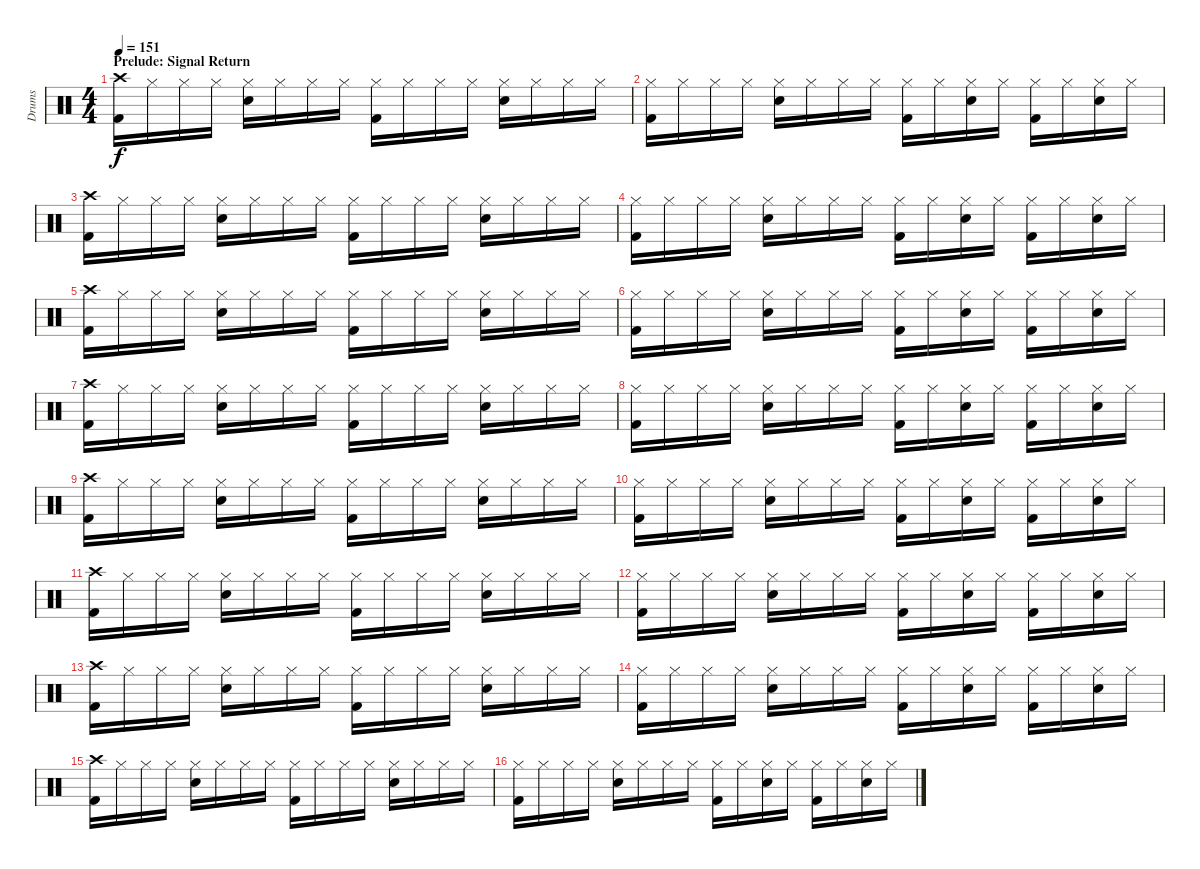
\track ("Drums" "Drums") {instrument percussion}
\staff {score}
\articulation defaults
\ts (4 4)
\section ("" "Prelude: Signal Return")
\tempo 151
\clef neutral
\ks c
("Crash high (hit)" "Kick (hit) 2").16{dy f} "Hi-Hat (closed)".16 "Hi-Hat (closed)".16 "Hi-Hat (closed)".16 ("Hi-Hat (closed)" "Snare (hit) 2").16 "Hi-Hat (closed)".16 "Hi-Hat (closed)".16 "Hi-Hat (closed)".16 ("Hi-Hat (closed)" "Kick (hit) 2").16 "Hi-Hat (closed)".16 "Hi-Hat (closed)".16 "Hi-Hat (closed)".16 ("Hi-Hat (closed)" "Snare (hit) 2").16 "Hi-Hat (closed)".16 "Hi-Hat (closed)".16 "Hi-Hat (closed)".16 |
("Hi-Hat (closed)" "Kick (hit) 2").16 "Hi-Hat (closed)".16 "Hi-Hat (closed)".16 "Hi-Hat (closed)".16 ("Hi-Hat (closed)" "Snare (hit) 2").16 "Hi-Hat (closed)".16 "Hi-Hat (closed)".16 "Hi-Hat (closed)".16 ("Hi-Hat (closed)" "Kick (hit) 2").16 "Hi-Hat (closed)".16 ("Hi-Hat (closed)" "Snare (hit) 2").16 "Hi-Hat (closed)".16 ("Hi-Hat (closed)" "Kick (hit) 2").16 "Hi-Hat (closed)".16 ("Hi-Hat (closed)" "Snare (hit) 2").16 "Hi-Hat (closed)".16 |
("Crash high (hit)" "Kick (hit) 2").16 "Hi-Hat (closed)".16 "Hi-Hat (closed)".16 "Hi-Hat (closed)".16 ("Hi-Hat (closed)" "Snare (hit) 2").16 "Hi-Hat (closed)".16 "Hi-Hat (closed)".16 "Hi-Hat (closed)".16 ("Hi-Hat (closed)" "Kick (hit) 2").16 "Hi-Hat (closed)".16 "Hi-Hat (closed)".16 "Hi-Hat (closed)".16 ("Hi-Hat (closed)" "Snare (hit) 2").16 "Hi-Hat (closed)".16 "Hi-Hat (closed)".16 "Hi-Hat (closed)".16 |
("Hi-Hat (closed)" "Kick (hit) 2").16 "Hi-Hat (closed)".16 "Hi-Hat (closed)".16 "Hi-Hat (closed)".16 ("Hi-Hat (closed)" "Snare (hit) 2").16 "Hi-Hat (closed)".16 "Hi-Hat (closed)".16 "Hi-Hat (closed)".16 ("Hi-Hat (closed)" "Kick (hit) 2").16 "Hi-Hat (closed)".16 ("Hi-Hat (closed)" "Snare (hit) 2").16 "Hi-Hat (closed)".16 ("Hi-Hat (closed)" "Kick (hit) 2").16 "Hi-Hat (closed)".16 ("Hi-Hat (closed)" "Snare (hit) 2").16 "Hi-Hat (closed)".16 |
("Crash high (hit)" "Kick (hit) 2").16 "Hi-Hat (closed)".16 "Hi-Hat (closed)".16 "Hi-Hat (closed)".16 ("Hi-Hat (closed)" "Snare (hit) 2").16 "Hi-Hat (closed)".16 "Hi-Hat (closed)".16 "Hi-Hat (closed)".16 ("Hi-Hat (closed)" "Kick (hit) 2").16 "Hi-Hat (closed)".16 "Hi-Hat (closed)".16 "Hi-Hat (closed)".16 ("Hi-Hat (closed)" "Snare (hit) 2").16 "Hi-Hat (closed)".16 "Hi-Hat (closed)".16 "Hi-Hat (closed)".16 |
("Hi-Hat (closed)" "Kick (hit) 2").16 "Hi-Hat (closed)".16 "Hi-Hat (closed)".16 "Hi-Hat (closed)".16 ("Hi-Hat (closed)" "Snare (hit) 2").16 "Hi-Hat (closed)".16 "Hi-Hat (closed)".16 "Hi-Hat (closed)".16 ("Hi-Hat (closed)" "Kick (hit) 2").16 "Hi-Hat (closed)".16 ("Hi-Hat (closed)" "Snare (hit) 2").16 "Hi-Hat (closed)".16 ("Hi-Hat (closed)" "Kick (hit) 2").16 "Hi-Hat (closed)".16 ("Hi-Hat (closed)" "Snare (hit) 2").16 "Hi-Hat (closed)".16 |
("Crash high (hit)" "Kick (hit) 2").16 "Hi-Hat (closed)".16 "Hi-Hat (closed)".16 "Hi-Hat (closed)".16 ("Hi-Hat (closed)" "Snare (hit) 2").16 "Hi-Hat (closed)".16 "Hi-Hat (closed)".16 "Hi-Hat (closed)".16 ("Hi-Hat (closed)" "Kick (hit) 2").16 "Hi-Hat (closed)".16 "Hi-Hat (closed)".16 "Hi-Hat (closed)".16 ("Hi-Hat (closed)" "Snare (hit) 2").16 "Hi-Hat (closed)".16 "Hi-Hat (closed)".16 "Hi-Hat (closed)".16 |
("Hi-Hat (closed)" "Kick (hit) 2").16 "Hi-Hat (closed)".16 "Hi-Hat (closed)".16 "Hi-Hat (closed)".16 ("Hi-Hat (closed)" "Snare (hit) 2").16 "Hi-Hat (closed)".16 "Hi-Hat (closed)".16 "Hi-Hat (closed)".16 ("Hi-Hat (closed)" "Kick (hit) 2").16 "Hi-Hat (closed)".16 ("Hi-Hat (closed)" "Snare (hit) 2").16 "Hi-Hat (closed)".16 ("Hi-Hat (closed)" "Kick (hit) 2").16 "Hi-Hat (closed)".16 ("Hi-Hat (closed)" "Snare (hit) 2").16 "Hi-Hat (closed)".16 |
("Crash high (hit)" "Kick (hit) 2").16 "Hi-Hat (closed)".16 "Hi-Hat (closed)".16 "Hi-Hat (closed)".16 ("Hi-Hat (closed)" "Snare (hit) 2").16 "Hi-Hat (closed)".16 "Hi-Hat (closed)".16 "Hi-Hat (closed)".16 ("Hi-Hat (closed)" "Kick (hit) 2").16 "Hi-Hat (closed)".16 "Hi-Hat (closed)".16 "Hi-Hat (closed)".16 ("Hi-Hat (closed)" "Snare (hit) 2").16 "Hi-Hat (closed)".16 "Hi-Hat (closed)".16 "Hi-Hat (closed)".16 |
("Hi-Hat (closed)" "Kick (hit) 2").16 "Hi-Hat (closed)".16 "Hi-Hat (closed)".16 "Hi-Hat (closed)".16 ("Hi-Hat (closed)" "Snare (hit) 2").16 "Hi-Hat (closed)".16 "Hi-Hat (closed)".16 "Hi-Hat (closed)".16 ("Hi-Hat (closed)" "Kick (hit) 2").16 "Hi-Hat (closed)".16 ("Hi-Hat (closed)" "Snare (hit) 2").16 "Hi-Hat (closed)".16 ("Hi-Hat (closed)" "Kick (hit) 2").16 "Hi-Hat (closed)".16 ("Hi-Hat (closed)" "Snare (hit) 2").16 "Hi-Hat (closed)".16 |
("Crash high (hit)" "Kick (hit) 2").16 "Hi-Hat (closed)".16 "Hi-Hat (closed)".16 "Hi-Hat (closed)".16 ("Hi-Hat (closed)" "Snare (hit) 2").16 "Hi-Hat (closed)".16 "Hi-Hat (closed)".16 "Hi-Hat (closed)".16 ("Hi-Hat (closed)" "Kick (hit) 2").16 "Hi-Hat (closed)".16 "Hi-Hat (closed)".16 "Hi-Hat (closed)".16 ("Hi-Hat (closed)" "Snare (hit) 2").16 "Hi-Hat (closed)".16 "Hi-Hat (closed)".16 "Hi-Hat (closed)".16 |
("Hi-Hat (closed)" "Kick (hit) 2").16 "Hi-Hat (closed)".16 "Hi-Hat (closed)".16 "Hi-Hat (closed)".16 ("Hi-Hat (closed)" "Snare (hit) 2").16 "Hi-Hat (closed)".16 "Hi-Hat (closed)".16 "Hi-Hat (closed)".16 ("Hi-Hat (closed)" "Kick (hit) 2").16 "Hi-Hat (closed)".16 ("Hi-Hat (closed)" "Snare (hit) 2").16 "Hi-Hat (closed)".16 ("Hi-Hat (closed)" "Kick (hit) 2").16 "Hi-Hat (closed)".16 ("Hi-Hat (closed)" "Snare (hit) 2").16 "Hi-Hat (closed)".16 |
("Crash high (hit)" "Kick (hit) 2").16 "Hi-Hat (closed)".16 "Hi-Hat (closed)".16 "Hi-Hat (closed)".16 ("Hi-Hat (closed)" "Snare (hit) 2").16 "Hi-Hat (closed)".16 "Hi-Hat (closed)".16 "Hi-Hat (closed)".16 ("Hi-Hat (closed)" "Kick (hit) 2").16 "Hi-Hat (closed)".16 "Hi-Hat (closed)".16 "Hi-Hat (closed)".16 ("Hi-Hat (closed)" "Snare (hit) 2").16 "Hi-Hat (closed)".16 "Hi-Hat (closed)".16 "Hi-Hat (closed)".16 |
("Hi-Hat (closed)" "Kick (hit) 2").16 "Hi-Hat (closed)".16 "Hi-Hat (closed)".16 "Hi-Hat (closed)".16 ("Hi-Hat (closed)" "Snare (hit) 2").16 "Hi-Hat (closed)".16 "Hi-Hat (closed)".16 "Hi-Hat (closed)".16 ("Hi-Hat (closed)" "Kick (hit) 2").16 "Hi-Hat (closed)".16 ("Hi-Hat (closed)" "Snare (hit) 2").16 "Hi-Hat (closed)".16 ("Hi-Hat (closed)" "Kick (hit) 2").16 "Hi-Hat (closed)".16 ("Hi-Hat (closed)" "Snare (hit) 2").16 "Hi-Hat (closed)".16 |
("Crash high (hit)" "Kick (hit) 2").16 "Hi-Hat (closed)".16 "Hi-Hat (closed)".16 "Hi-Hat (closed)".16 ("Hi-Hat (closed)" "Snare (hit) 2").16 "Hi-Hat (closed)".16 "Hi-Hat (closed)".16 "Hi-Hat (closed)".16 ("Hi-Hat (closed)" "Kick (hit) 2").16 "Hi-Hat (closed)".16 "Hi-Hat (closed)".16 "Hi-Hat (closed)".16 ("Hi-Hat (closed)" "Snare (hit) 2").16 "Hi-Hat (closed)".16 "Hi-Hat (closed)".16 "Hi-Hat (closed)".16 |
("Hi-Hat (closed)" "Kick (hit) 2").16 "Hi-Hat (closed)".16 "Hi-Hat (closed)".16 "Hi-Hat (closed)".16 ("Hi-Hat (closed)" "Snare (hit) 2").16 "Hi-Hat (closed)".16 "Hi-Hat (closed)".16 "Hi-Hat (closed)".16 ("Hi-Hat (closed)" "Kick (hit) 2").16 "Hi-Hat (closed)".16 ("Hi-Hat (closed)" "Snare (hit) 2").16 "Hi-Hat (closed)".16 ("Hi-Hat (closed)" "Kick (hit) 2").16 "Hi-Hat (closed)".16 ("Hi-Hat (closed)" "Snare (hit) 2").16 "Hi-Hat (closed)".16
